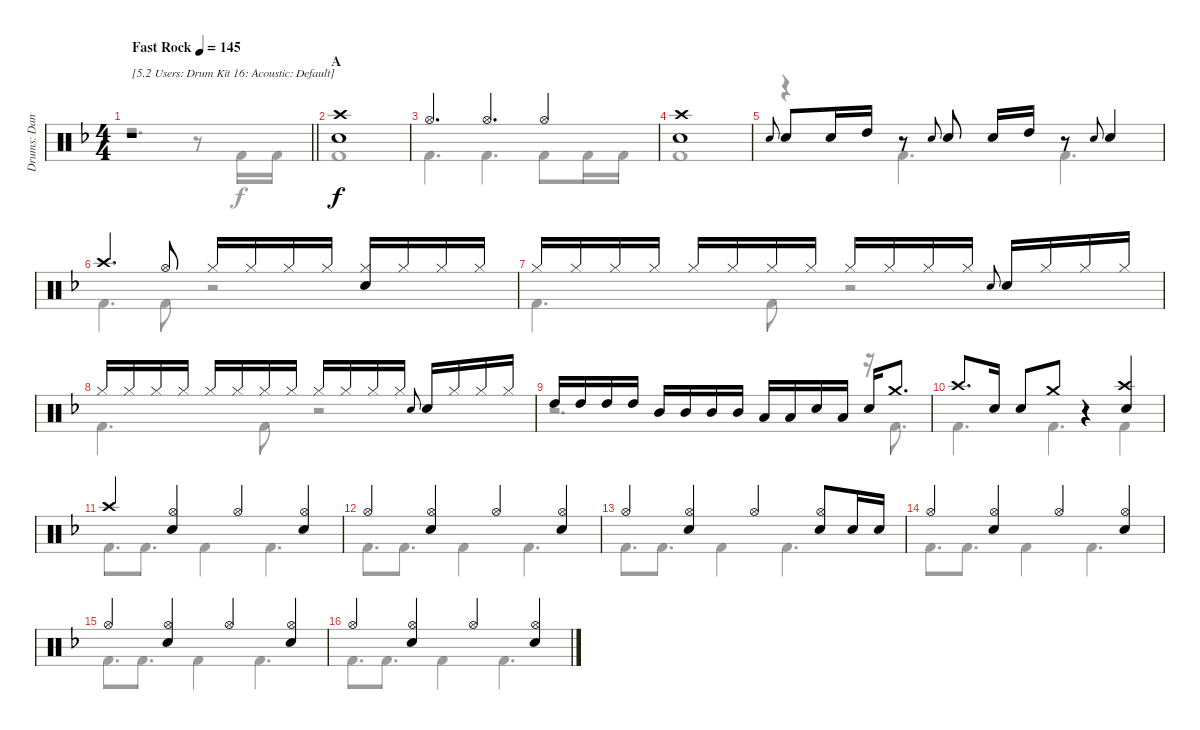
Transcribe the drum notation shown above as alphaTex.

\track ("Drums: Dana" "Drums: Dan") {instrument percussion}
\staff {score}
\articulation defaults
\voice
\ts (4 4)
\tempo (145 "Fast Rock")
\clef neutral
\barLineRight lightlight
\ks f
r.1{txt "[5.2 Users: Drum Kit 16: Acoustic: Default]" dy f} |
\section ("" "A")
("Crash high (hit)" "Snare (hit) 2").1 |
"Hi-Hat (open)".4{d} "Hi-Hat (open)".4{d} "Hi-Hat (open)".4 |
("Crash high (hit)" "Snare (hit) 2").1 |
"Electric Snare (hit)".8{gr onbeat} "Snare (hit) 2".8 "Snare (hit) 2".16 "High Tom (hit)".16 r.8 "Electric Snare (hit)".8{gr onbeat} "Snare (hit) 2".8 "Snare (hit) 2".16 "High Tom (hit)".16 r.8 "Electric Snare (hit)".8{gr onbeat} "Snare (hit) 2".4 |
"Crash high (hit)".4{d} "Hi-Hat (open)".8 "Hi-Hat (closed)".16 "Hi-Hat (closed)".16 "Hi-Hat (closed)".16 "Hi-Hat (closed)".16 ("Hi-Hat (closed)" "Snare (hit) 2").16 "Hi-Hat (closed)".16 "Hi-Hat (closed)".16 "Hi-Hat (closed)".16 |
"Hi-Hat (closed)".16 "Hi-Hat (closed)".16 "Hi-Hat (closed)".16 "Hi-Hat (closed)".16 "Hi-Hat (closed)".16 "Hi-Hat (closed)".16 "Hi-Hat (closed)".16 "Hi-Hat (closed)".16 "Hi-Hat (closed)".16 "Hi-Hat (closed)".16 "Hi-Hat (closed)".16 "Hi-Hat (closed)".16 "Electric Snare (hit)".8{gr onbeat} "Snare (hit) 2".16 "Hi-Hat (closed)".16 "Hi-Hat (closed)".16 "Hi-Hat (closed)".16 |
"Hi-Hat (closed)".16 "Hi-Hat (closed)".16 "Hi-Hat (closed)".16 "Hi-Hat (closed)".16 "Hi-Hat (closed)".16 "Hi-Hat (closed)".16 "Hi-Hat (closed)".16 "Hi-Hat (closed)".16 "Hi-Hat (closed)".16 "Hi-Hat (closed)".16 "Hi-Hat (closed)".16 "Hi-Hat (closed)".16 "Electric Snare (hit)".8{gr onbeat} "Snare (hit) 2".16 "Hi-Hat (closed)".16 "Hi-Hat (closed)".16 "Hi-Hat (closed)".16 |
"High Tom (hit)".16 "High Tom (hit)".16 "High Tom (hit)".16 "High Tom (hit)".16 "Mid Tom (hit)".16 "Mid Tom (hit)".16 "Mid Tom (hit)".16 "Mid Tom (hit)".16 "Low Tom (hit)".16 "Low Tom (hit)".16 "Electric Snare (hit)".16 "Low Tom (hit)".16 "Snare (hit) 2".16 "Crash medium (hit)".8{d} |
"Crash high (hit)".8{d} "Snare (hit) 2".16 "Snare (hit) 2".8 "Crash medium (hit)".8 r.4 ("Crash high (hit)" "Snare (hit) 2").4 |
"Crash high (hit)".4 ("Hi-Hat (open)" "Snare (hit) 2").4 "Hi-Hat (open)".4 ("Hi-Hat (open)" "Snare (hit) 2").4 |
"Hi-Hat (open)".4 ("Hi-Hat (open)" "Snare (hit) 2").4 "Hi-Hat (open)".4 ("Hi-Hat (open)" "Snare (hit) 2").4 |
"Hi-Hat (open)".4 ("Hi-Hat (open)" "Snare (hit) 2").4 "Hi-Hat (open)".4 ("Hi-Hat (open)" "Snare (hit) 2").8 "Snare (hit) 2".16 "Snare (hit) 2".16 |
"Hi-Hat (open)".4 ("Hi-Hat (open)" "Snare (hit) 2").4 "Hi-Hat (open)".4 ("Hi-Hat (open)" "Snare (hit) 2").4 |
"Hi-Hat (open)".4 ("Hi-Hat (open)" "Snare (hit) 2").4 "Hi-Hat (open)".4 ("Hi-Hat (open)" "Snare (hit) 2").4 |
"Hi-Hat (open)".4 ("Hi-Hat (open)" "Snare (hit) 2").4 "Hi-Hat (open)".4 ("Hi-Hat (open)" "Snare (hit) 2").4
\voice
\clef neutral
\ottava regular
\simile none
\barLineRight lightlight
\ks f
r.2{d dy f} r.8 "Kick (hit) 2".16 "Kick (hit) 2".16 |
"Kick (hit) 2".1 |
"Kick (hit) 2".4{d} "Kick (hit) 2".4{d} "Kick (hit) 2".8 "Kick (hit) 2".16 "Kick (hit) 2".16 |
"Kick (hit) 2".1 |
r.4 "Kick (hit) 2".4{d} "Kick (hit) 2".4{d} |
"Kick (hit) 2".4{d} "Kick (hit) 2".8 r.2 |
"Kick (hit) 2".4{d} "Kick (hit) 2".8 r.2 |
"Kick (hit) 2".4{d} "Kick (hit) 2".8 r.2 |
r.2{d} r.16 "Kick (hit) 2".8{d} |
"Kick (hit) 2".4{d} "Kick (hit) 2".4{d} "Kick (hit) 2".4 |
"Kick (hit) 2".8{d} "Kick (hit) 2".8{d} "Kick (hit) 2".4 "Kick (hit) 2".4{d} |
"Kick (hit) 2".8{d} "Kick (hit) 2".8{d} "Kick (hit) 2".4 "Kick (hit) 2".4{d} |
"Kick (hit) 2".8{d} "Kick (hit) 2".8{d} "Kick (hit) 2".4 "Kick (hit) 2".4{d} |
"Kick (hit) 2".8{d} "Kick (hit) 2".8{d} "Kick (hit) 2".4 "Kick (hit) 2".4{d} |
"Kick (hit) 2".8{d} "Kick (hit) 2".8{d} "Kick (hit) 2".4 "Kick (hit) 2".4{d} |
"Kick (hit) 2".8{d} "Kick (hit) 2".8{d} "Kick (hit) 2".4 "Kick (hit) 2".4{d}
